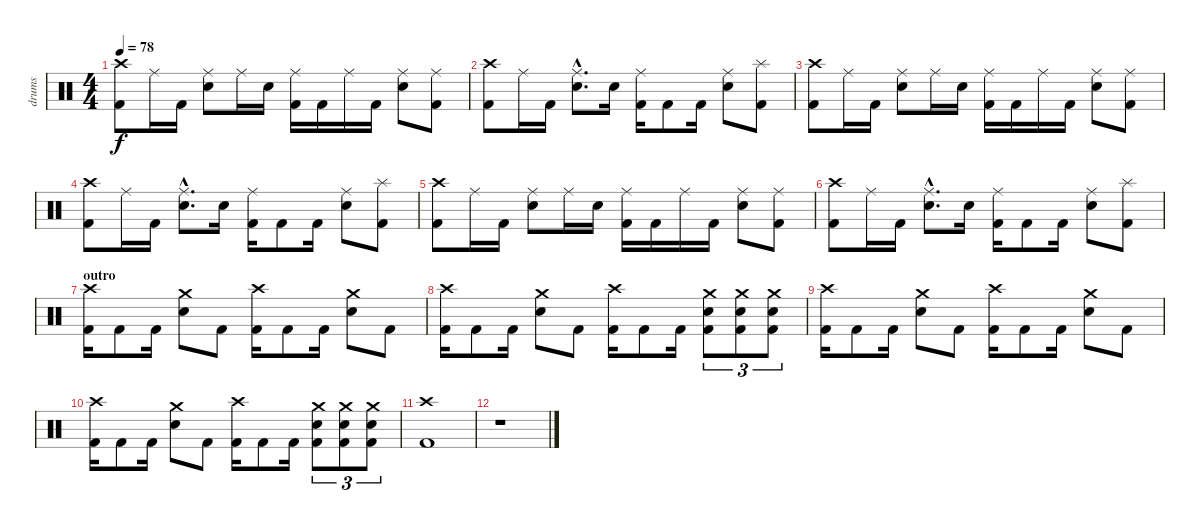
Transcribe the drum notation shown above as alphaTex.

\track ("drums" "drums") {instrument percussion}
\staff {score}
\articulation defaults
\ts (4 4)
\tempo 78
\clef neutral
\ks c
("Crash high (hit)" "Kick (hit) 2").8{dy f} "Ride (middle)".16 "Kick (hit) 2".16 ("Ride (middle)" "Electric Snare (hit)").8 "Ride (middle)".16 "Electric Snare (hit)".16 ("Ride (middle)" "Kick (hit) 2").16 "Kick (hit) 2".16 "Ride (middle)".16 "Kick (hit) 2".16 ("Ride (middle)" "Electric Snare (hit)").8 ("Ride (middle)" "Kick (hit) 2").8 |
("Crash high (hit)" "Kick (hit) 2").8 "Ride (middle)".16 "Kick (hit) 2".16 ("Ride (middle)"{hac} "Electric Snare (hit)"{hac}).8{d} "Electric Snare (hit)".16 ("Ride (middle)" "Kick (hit) 2").16 "Kick (hit) 2".8 "Kick (hit) 2".16 ("Ride (middle)" "Electric Snare (hit)").8 ("Splash (hit)" "Kick (hit) 2").8 |
("Crash high (hit)" "Kick (hit) 2").8 "Ride (middle)".16 "Kick (hit) 2".16 ("Ride (middle)" "Electric Snare (hit)").8 "Ride (middle)".16 "Electric Snare (hit)".16 ("Ride (middle)" "Kick (hit) 2").16 "Kick (hit) 2".16 "Ride (middle)".16 "Kick (hit) 2".16 ("Ride (middle)" "Electric Snare (hit)").8 ("Ride (middle)" "Kick (hit) 2").8 |
("Crash high (hit)" "Kick (hit) 2").8 "Ride (middle)".16 "Kick (hit) 2".16 ("Ride (middle)"{hac} "Electric Snare (hit)"{hac}).8{d} "Electric Snare (hit)".16 ("Ride (middle)" "Kick (hit) 2").16 "Kick (hit) 2".8 "Kick (hit) 2".16 ("Ride (middle)" "Electric Snare (hit)").8 ("Splash (hit)" "Kick (hit) 2").8 |
("Crash high (hit)" "Kick (hit) 2").8 "Ride (middle)".16 "Kick (hit) 2".16 ("Ride (middle)" "Electric Snare (hit)").8 "Ride (middle)".16 "Electric Snare (hit)".16 ("Ride (middle)" "Kick (hit) 2").16 "Kick (hit) 2".16 "Ride (middle)".16 "Kick (hit) 2".16 ("Ride (middle)" "Electric Snare (hit)").8 ("Ride (middle)" "Kick (hit) 2").8 |
("Crash high (hit)" "Kick (hit) 2").8 "Ride (middle)".16 "Kick (hit) 2".16 ("Ride (middle)"{hac} "Electric Snare (hit)"{hac}).8{d} "Electric Snare (hit)".16 ("Ride (middle)" "Kick (hit) 2").16 "Kick (hit) 2".8 "Kick (hit) 2".16 ("Ride (middle)" "Electric Snare (hit)").8 ("Splash (hit)" "Kick (hit) 2").8 |
\section ("" "outro")
("Crash high (hit)" "Kick (hit) 2").16 "Kick (hit) 2".8 "Kick (hit) 2".16 ("Crash medium (hit)" "Electric Snare (hit)").8 "Kick (hit) 2".8 ("Crash high (hit)" "Kick (hit) 2").16 "Kick (hit) 2".8 "Kick (hit) 2".16 ("Crash medium (hit)" "Electric Snare (hit)").8 "Kick (hit) 2".8 |
("Crash high (hit)" "Kick (hit) 2").16 "Kick (hit) 2".8 "Kick (hit) 2".16 ("Crash medium (hit)" "Electric Snare (hit)").8 "Kick (hit) 2".8 ("Crash high (hit)" "Kick (hit) 2").16 "Kick (hit) 2".8 "Kick (hit) 2".16 ("Crash medium (hit)" "Electric Snare (hit)" "Kick (hit) 2").8{tu (3 2)} ("Crash medium (hit)" "Electric Snare (hit)" "Kick (hit) 2").8{tu (3 2)} ("Crash medium (hit)" "Electric Snare (hit)" "Kick (hit) 2").8{tu (3 2)} |
("Crash high (hit)" "Kick (hit) 2").16 "Kick (hit) 2".8 "Kick (hit) 2".16 ("Crash medium (hit)" "Electric Snare (hit)").8 "Kick (hit) 2".8 ("Crash high (hit)" "Kick (hit) 2").16 "Kick (hit) 2".8 "Kick (hit) 2".16 ("Crash medium (hit)" "Electric Snare (hit)").8 "Kick (hit) 2".8 |
("Crash high (hit)" "Kick (hit) 2").16 "Kick (hit) 2".8 "Kick (hit) 2".16 ("Crash medium (hit)" "Electric Snare (hit)").8 "Kick (hit) 2".8 ("Crash high (hit)" "Kick (hit) 2").16 "Kick (hit) 2".8 "Kick (hit) 2".16 ("Crash medium (hit)" "Electric Snare (hit)" "Kick (hit) 2").8{tu (3 2)} ("Crash medium (hit)" "Electric Snare (hit)" "Kick (hit) 2").8{tu (3 2)} ("Crash medium (hit)" "Electric Snare (hit)" "Kick (hit) 2").8{tu (3 2)} |
("Crash high (hit)" "Kick (hit) 2").1 |
r.1
